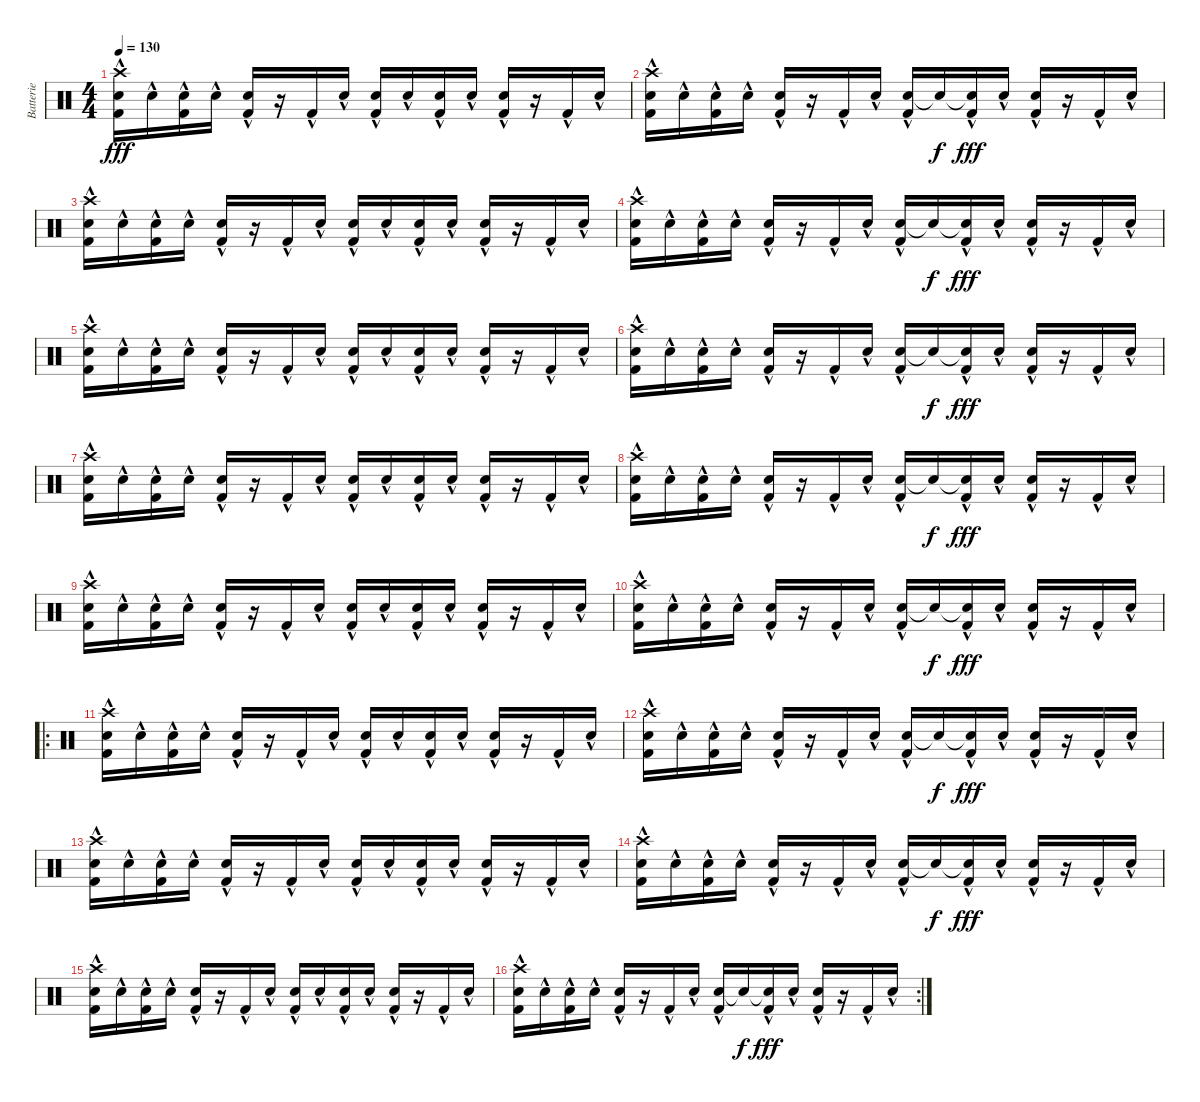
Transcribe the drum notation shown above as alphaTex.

\track ("Batterie" "Batterie") {instrument percussion}
\staff {score}
\articulation defaults
\ts (4 4)
\tempo 130
\clef neutral
\ks c
("Crash high (hit)"{hac} "Electric Snare (hit)"{hac} "Kick (hit) 2"{hac}).16{dy fff} "Electric Snare (hit)"{hac}.16 ("Electric Snare (hit)"{hac} "Kick (hit) 2"{hac}).16 "Electric Snare (hit)"{hac}.16 ("Electric Snare (hit)"{hac} "Kick (hit) 2"{hac}).16 r.16 "Kick (hit) 2"{hac}.16 "Electric Snare (hit)"{hac}.16 ("Electric Snare (hit)"{hac} "Kick (hit) 2"{hac}).16 "Electric Snare (hit)"{hac}.16 ("Electric Snare (hit)"{hac} "Kick (hit) 2"{hac}).16 "Electric Snare (hit)"{hac}.16 ("Electric Snare (hit)"{hac} "Kick (hit) 2"{hac}).16 r.16 "Kick (hit) 2"{hac}.16 "Electric Snare (hit)"{hac}.16 |
("Crash high (hit)"{hac} "Electric Snare (hit)"{hac} "Kick (hit) 2"{hac}).16 "Electric Snare (hit)"{hac}.16 ("Electric Snare (hit)"{hac} "Kick (hit) 2"{hac}).16 "Electric Snare (hit)"{hac}.16 ("Electric Snare (hit)"{hac} "Kick (hit) 2"{hac}).16 r.16 "Kick (hit) 2"{hac}.16 "Electric Snare (hit)"{hac}.16 ("Electric Snare (hit)"{hac} "Kick (hit) 2"{hac}).16 "Electric Snare (hit)"{t}.16{dy f} ("Electric Snare (hit)"{t} "Kick (hit) 2"{hac}).16{dy fff} "Electric Snare (hit)"{hac}.16 ("Electric Snare (hit)"{hac} "Kick (hit) 2"{hac}).16 r.16 "Kick (hit) 2"{hac}.16 "Electric Snare (hit)"{hac}.16 |
("Crash high (hit)"{hac} "Electric Snare (hit)"{hac} "Kick (hit) 2"{hac}).16 "Electric Snare (hit)"{hac}.16 ("Electric Snare (hit)"{hac} "Kick (hit) 2"{hac}).16 "Electric Snare (hit)"{hac}.16 ("Electric Snare (hit)"{hac} "Kick (hit) 2"{hac}).16 r.16 "Kick (hit) 2"{hac}.16 "Electric Snare (hit)"{hac}.16 ("Electric Snare (hit)"{hac} "Kick (hit) 2"{hac}).16 "Electric Snare (hit)"{hac}.16 ("Electric Snare (hit)"{hac} "Kick (hit) 2"{hac}).16 "Electric Snare (hit)"{hac}.16 ("Electric Snare (hit)"{hac} "Kick (hit) 2"{hac}).16 r.16 "Kick (hit) 2"{hac}.16 "Electric Snare (hit)"{hac}.16 |
("Crash high (hit)"{hac} "Electric Snare (hit)"{hac} "Kick (hit) 2"{hac}).16 "Electric Snare (hit)"{hac}.16 ("Electric Snare (hit)"{hac} "Kick (hit) 2"{hac}).16 "Electric Snare (hit)"{hac}.16 ("Electric Snare (hit)"{hac} "Kick (hit) 2"{hac}).16 r.16 "Kick (hit) 2"{hac}.16 "Electric Snare (hit)"{hac}.16 ("Electric Snare (hit)"{hac} "Kick (hit) 2"{hac}).16 "Electric Snare (hit)"{t}.16{dy f} ("Electric Snare (hit)"{t} "Kick (hit) 2"{hac}).16{dy fff} "Electric Snare (hit)"{hac}.16 ("Electric Snare (hit)"{hac} "Kick (hit) 2"{hac}).16 r.16 "Kick (hit) 2"{hac}.16 "Electric Snare (hit)"{hac}.16 |
("Crash high (hit)"{hac} "Electric Snare (hit)"{hac} "Kick (hit) 2"{hac}).16 "Electric Snare (hit)"{hac}.16 ("Electric Snare (hit)"{hac} "Kick (hit) 2"{hac}).16 "Electric Snare (hit)"{hac}.16 ("Electric Snare (hit)"{hac} "Kick (hit) 2"{hac}).16 r.16 "Kick (hit) 2"{hac}.16 "Electric Snare (hit)"{hac}.16 ("Electric Snare (hit)"{hac} "Kick (hit) 2"{hac}).16 "Electric Snare (hit)"{hac}.16 ("Electric Snare (hit)"{hac} "Kick (hit) 2"{hac}).16 "Electric Snare (hit)"{hac}.16 ("Electric Snare (hit)"{hac} "Kick (hit) 2"{hac}).16 r.16 "Kick (hit) 2"{hac}.16 "Electric Snare (hit)"{hac}.16 |
("Crash high (hit)"{hac} "Electric Snare (hit)"{hac} "Kick (hit) 2"{hac}).16 "Electric Snare (hit)"{hac}.16 ("Electric Snare (hit)"{hac} "Kick (hit) 2"{hac}).16 "Electric Snare (hit)"{hac}.16 ("Electric Snare (hit)"{hac} "Kick (hit) 2"{hac}).16 r.16 "Kick (hit) 2"{hac}.16 "Electric Snare (hit)"{hac}.16 ("Electric Snare (hit)"{hac} "Kick (hit) 2"{hac}).16 "Electric Snare (hit)"{t}.16{dy f} ("Electric Snare (hit)"{t} "Kick (hit) 2"{hac}).16{dy fff} "Electric Snare (hit)"{hac}.16 ("Electric Snare (hit)"{hac} "Kick (hit) 2"{hac}).16 r.16 "Kick (hit) 2"{hac}.16 "Electric Snare (hit)"{hac}.16 |
("Crash high (hit)"{hac} "Electric Snare (hit)"{hac} "Kick (hit) 2"{hac}).16 "Electric Snare (hit)"{hac}.16 ("Electric Snare (hit)"{hac} "Kick (hit) 2"{hac}).16 "Electric Snare (hit)"{hac}.16 ("Electric Snare (hit)"{hac} "Kick (hit) 2"{hac}).16 r.16 "Kick (hit) 2"{hac}.16 "Electric Snare (hit)"{hac}.16 ("Electric Snare (hit)"{hac} "Kick (hit) 2"{hac}).16 "Electric Snare (hit)"{hac}.16 ("Electric Snare (hit)"{hac} "Kick (hit) 2"{hac}).16 "Electric Snare (hit)"{hac}.16 ("Electric Snare (hit)"{hac} "Kick (hit) 2"{hac}).16 r.16 "Kick (hit) 2"{hac}.16 "Electric Snare (hit)"{hac}.16 |
("Crash high (hit)"{hac} "Electric Snare (hit)"{hac} "Kick (hit) 2"{hac}).16 "Electric Snare (hit)"{hac}.16 ("Electric Snare (hit)"{hac} "Kick (hit) 2"{hac}).16 "Electric Snare (hit)"{hac}.16 ("Electric Snare (hit)"{hac} "Kick (hit) 2"{hac}).16 r.16 "Kick (hit) 2"{hac}.16 "Electric Snare (hit)"{hac}.16 ("Electric Snare (hit)"{hac} "Kick (hit) 2"{hac}).16 "Electric Snare (hit)"{t}.16{dy f} ("Electric Snare (hit)"{t} "Kick (hit) 2"{hac}).16{dy fff} "Electric Snare (hit)"{hac}.16 ("Electric Snare (hit)"{hac} "Kick (hit) 2"{hac}).16 r.16 "Kick (hit) 2"{hac}.16 "Electric Snare (hit)"{hac}.16 |
("Crash high (hit)"{hac} "Electric Snare (hit)"{hac} "Kick (hit) 2"{hac}).16 "Electric Snare (hit)"{hac}.16 ("Electric Snare (hit)"{hac} "Kick (hit) 2"{hac}).16 "Electric Snare (hit)"{hac}.16 ("Electric Snare (hit)"{hac} "Kick (hit) 2"{hac}).16 r.16 "Kick (hit) 2"{hac}.16 "Electric Snare (hit)"{hac}.16 ("Electric Snare (hit)"{hac} "Kick (hit) 2"{hac}).16 "Electric Snare (hit)"{hac}.16 ("Electric Snare (hit)"{hac} "Kick (hit) 2"{hac}).16 "Electric Snare (hit)"{hac}.16 ("Electric Snare (hit)"{hac} "Kick (hit) 2"{hac}).16 r.16 "Kick (hit) 2"{hac}.16 "Electric Snare (hit)"{hac}.16 |
("Crash high (hit)"{hac} "Electric Snare (hit)"{hac} "Kick (hit) 2"{hac}).16 "Electric Snare (hit)"{hac}.16 ("Electric Snare (hit)"{hac} "Kick (hit) 2"{hac}).16 "Electric Snare (hit)"{hac}.16 ("Electric Snare (hit)"{hac} "Kick (hit) 2"{hac}).16 r.16 "Kick (hit) 2"{hac}.16 "Electric Snare (hit)"{hac}.16 ("Electric Snare (hit)"{hac} "Kick (hit) 2"{hac}).16 "Electric Snare (hit)"{t}.16{dy f} ("Electric Snare (hit)"{t} "Kick (hit) 2"{hac}).16{dy fff} "Electric Snare (hit)"{hac}.16 ("Electric Snare (hit)"{hac} "Kick (hit) 2"{hac}).16 r.16 "Kick (hit) 2"{hac}.16 "Electric Snare (hit)"{hac}.16 |
\ro
("Crash high (hit)"{hac} "Electric Snare (hit)"{hac} "Kick (hit) 2"{hac}).16 "Electric Snare (hit)"{hac}.16 ("Electric Snare (hit)"{hac} "Kick (hit) 2"{hac}).16 "Electric Snare (hit)"{hac}.16 ("Electric Snare (hit)"{hac} "Kick (hit) 2"{hac}).16 r.16 "Kick (hit) 2"{hac}.16 "Electric Snare (hit)"{hac}.16 ("Electric Snare (hit)"{hac} "Kick (hit) 2"{hac}).16 "Electric Snare (hit)"{hac}.16 ("Electric Snare (hit)"{hac} "Kick (hit) 2"{hac}).16 "Electric Snare (hit)"{hac}.16 ("Electric Snare (hit)"{hac} "Kick (hit) 2"{hac}).16 r.16 "Kick (hit) 2"{hac}.16 "Electric Snare (hit)"{hac}.16 |
("Crash high (hit)"{hac} "Electric Snare (hit)"{hac} "Kick (hit) 2"{hac}).16 "Electric Snare (hit)"{hac}.16 ("Electric Snare (hit)"{hac} "Kick (hit) 2"{hac}).16 "Electric Snare (hit)"{hac}.16 ("Electric Snare (hit)"{hac} "Kick (hit) 2"{hac}).16 r.16 "Kick (hit) 2"{hac}.16 "Electric Snare (hit)"{hac}.16 ("Electric Snare (hit)"{hac} "Kick (hit) 2"{hac}).16 "Electric Snare (hit)"{t}.16{dy f} ("Electric Snare (hit)"{t} "Kick (hit) 2"{hac}).16{dy fff} "Electric Snare (hit)"{hac}.16 ("Electric Snare (hit)"{hac} "Kick (hit) 2"{hac}).16 r.16 "Kick (hit) 2"{hac}.16 "Electric Snare (hit)"{hac}.16 |
("Crash high (hit)"{hac} "Electric Snare (hit)"{hac} "Kick (hit) 2"{hac}).16 "Electric Snare (hit)"{hac}.16 ("Electric Snare (hit)"{hac} "Kick (hit) 2"{hac}).16 "Electric Snare (hit)"{hac}.16 ("Electric Snare (hit)"{hac} "Kick (hit) 2"{hac}).16 r.16 "Kick (hit) 2"{hac}.16 "Electric Snare (hit)"{hac}.16 ("Electric Snare (hit)"{hac} "Kick (hit) 2"{hac}).16 "Electric Snare (hit)"{hac}.16 ("Electric Snare (hit)"{hac} "Kick (hit) 2"{hac}).16 "Electric Snare (hit)"{hac}.16 ("Electric Snare (hit)"{hac} "Kick (hit) 2"{hac}).16 r.16 "Kick (hit) 2"{hac}.16 "Electric Snare (hit)"{hac}.16 |
("Crash high (hit)"{hac} "Electric Snare (hit)"{hac} "Kick (hit) 2"{hac}).16 "Electric Snare (hit)"{hac}.16 ("Electric Snare (hit)"{hac} "Kick (hit) 2"{hac}).16 "Electric Snare (hit)"{hac}.16 ("Electric Snare (hit)"{hac} "Kick (hit) 2"{hac}).16 r.16 "Kick (hit) 2"{hac}.16 "Electric Snare (hit)"{hac}.16 ("Electric Snare (hit)"{hac} "Kick (hit) 2"{hac}).16 "Electric Snare (hit)"{t}.16{dy f} ("Electric Snare (hit)"{t} "Kick (hit) 2"{hac}).16{dy fff} "Electric Snare (hit)"{hac}.16 ("Electric Snare (hit)"{hac} "Kick (hit) 2"{hac}).16 r.16 "Kick (hit) 2"{hac}.16 "Electric Snare (hit)"{hac}.16 |
("Crash high (hit)"{hac} "Electric Snare (hit)"{hac} "Kick (hit) 2"{hac}).16 "Electric Snare (hit)"{hac}.16 ("Electric Snare (hit)"{hac} "Kick (hit) 2"{hac}).16 "Electric Snare (hit)"{hac}.16 ("Electric Snare (hit)"{hac} "Kick (hit) 2"{hac}).16 r.16 "Kick (hit) 2"{hac}.16 "Electric Snare (hit)"{hac}.16 ("Electric Snare (hit)"{hac} "Kick (hit) 2"{hac}).16 "Electric Snare (hit)"{hac}.16 ("Electric Snare (hit)"{hac} "Kick (hit) 2"{hac}).16 "Electric Snare (hit)"{hac}.16 ("Electric Snare (hit)"{hac} "Kick (hit) 2"{hac}).16 r.16 "Kick (hit) 2"{hac}.16 "Electric Snare (hit)"{hac}.16 |
\rc 2
("Crash high (hit)"{hac} "Electric Snare (hit)"{hac} "Kick (hit) 2"{hac}).16 "Electric Snare (hit)"{hac}.16 ("Electric Snare (hit)"{hac} "Kick (hit) 2"{hac}).16 "Electric Snare (hit)"{hac}.16 ("Electric Snare (hit)"{hac} "Kick (hit) 2"{hac}).16 r.16 "Kick (hit) 2"{hac}.16 "Electric Snare (hit)"{hac}.16 ("Electric Snare (hit)"{hac} "Kick (hit) 2"{hac}).16 "Electric Snare (hit)"{t}.16{dy f} ("Electric Snare (hit)"{t} "Kick (hit) 2"{hac}).16{dy fff} "Electric Snare (hit)"{hac}.16 ("Electric Snare (hit)"{hac} "Kick (hit) 2"{hac}).16 r.16 "Kick (hit) 2"{hac}.16 "Electric Snare (hit)"{hac}.16
